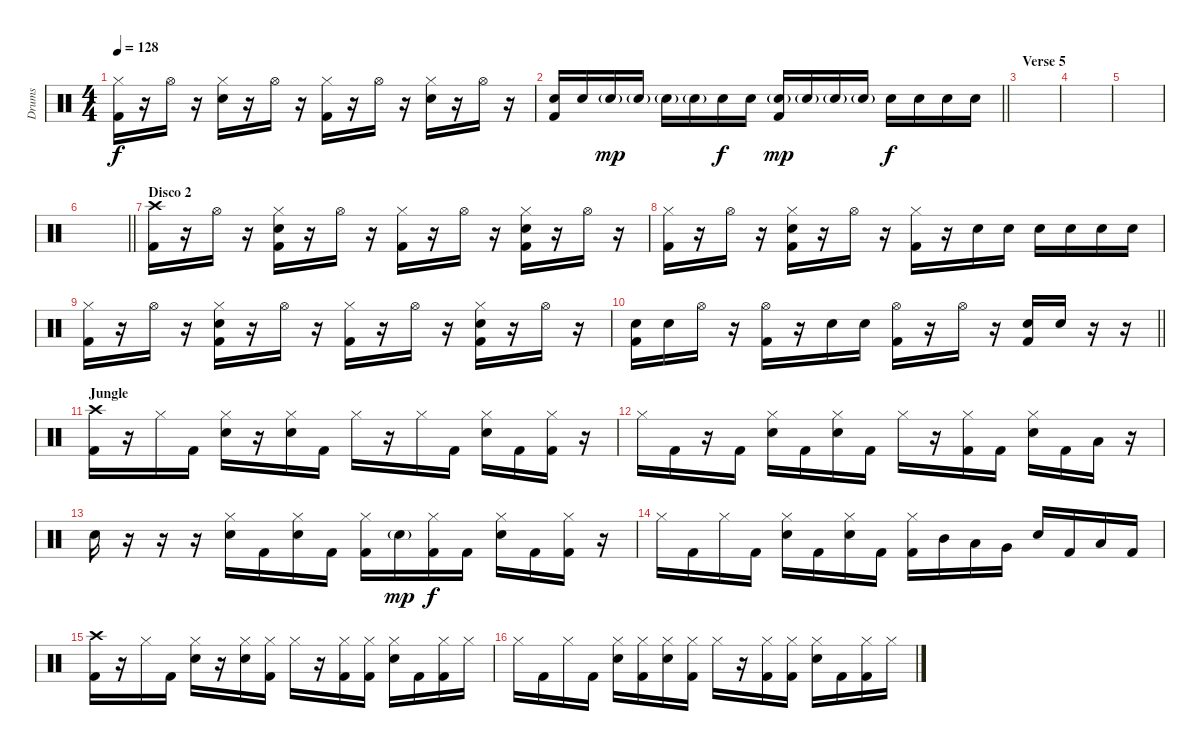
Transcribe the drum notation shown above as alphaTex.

\track ("Drums" "Drums") {instrument percussion}
\staff {score}
\articulation defaults
\ts (4 4)
\tempo 128
\clef neutral
\ks c
("Hi-Hat (closed)" "Kick (hit) 2").16{dy f} r.16 "Hi-Hat (open)".16 r.16 ("Hi-Hat (closed)" "Electric Snare (hit)").16 r.16 "Hi-Hat (open)".16 r.16 ("Hi-Hat (closed)" "Kick (hit) 2").16 r.16 "Hi-Hat (open)".16 r.16 ("Hi-Hat (closed)" "Electric Snare (hit)").16 r.16 "Hi-Hat (open)".16 r.16 |
\barLineRight lightlight
("Electric Snare (hit)" "Kick (hit) 2").16 "Electric Snare (hit)".16 "Electric Snare (hit)"{g}.16{dy mp} "Electric Snare (hit)"{g}.16 "Electric Snare (hit)"{g}.16 "Electric Snare (hit)"{g}.16 "Electric Snare (hit)".16{dy f} "Electric Snare (hit)".16 ("Electric Snare (hit)"{g} "Kick (hit) 2").16{dy mp} "Electric Snare (hit)"{g}.16 "Electric Snare (hit)"{g}.16 "Electric Snare (hit)"{g}.16 "Electric Snare (hit)".16{dy f} "Electric Snare (hit)".16 "Electric Snare (hit)".16 "Electric Snare (hit)".16 |
\section ("" "Verse 5")
|
|
|
\barLineRight lightlight
|
\section ("" "Disco 2")
("Crash high (hit)" "Kick (hit) 2").16 r.16 "Hi-Hat (open)".16 r.16 ("Hi-Hat (closed)" "Electric Snare (hit)" "Kick (hit) 2").16 r.16 "Hi-Hat (open)".16 r.16 ("Hi-Hat (closed)" "Kick (hit) 2").16 r.16 "Hi-Hat (open)".16 r.16 ("Hi-Hat (closed)" "Electric Snare (hit)" "Kick (hit) 2").16 r.16 "Hi-Hat (open)".16 r.16 |
("Hi-Hat (closed)" "Kick (hit) 2").16 r.16 "Hi-Hat (open)".16 r.16 ("Hi-Hat (closed)" "Electric Snare (hit)" "Kick (hit) 2").16 r.16 "Hi-Hat (open)".16 r.16 ("Hi-Hat (closed)" "Kick (hit) 2").16 r.16 "Electric Snare (hit)".16 "Electric Snare (hit)".16 "Electric Snare (hit)".16 "Electric Snare (hit)".16 "Electric Snare (hit)".16 "Electric Snare (hit)".16 |
("Hi-Hat (closed)" "Kick (hit) 2").16 r.16 "Hi-Hat (open)".16 r.16 ("Hi-Hat (closed)" "Electric Snare (hit)" "Kick (hit) 2").16 r.16 "Hi-Hat (open)".16 r.16 ("Hi-Hat (closed)" "Kick (hit) 2").16 r.16 "Hi-Hat (open)".16 r.16 ("Hi-Hat (closed)" "Electric Snare (hit)" "Kick (hit) 2").16 r.16 "Hi-Hat (open)".16 r.16 |
\barLineRight lightlight
("Electric Snare (hit)" "Kick (hit) 2").16 "Electric Snare (hit)".16 "Hi-Hat (open)".16 r.16 ("Hi-Hat (open)" "Kick (hit) 2").16 r.16 "Electric Snare (hit)".16 "Electric Snare (hit)".16 ("Hi-Hat (open)" "Kick (hit) 2").16 r.16 "Hi-Hat (open)".16 r.16 ("Electric Snare (hit)" "Kick (hit) 2").16 "Electric Snare (hit)".16 r.16 r.16 |
\section ("" "Jungle")
("Crash high (hit)" "Kick (hit) 2").16 r.16 "Hi-Hat (closed)".16 "Kick (hit) 2".16 ("Hi-Hat (closed)" "Electric Snare (hit)").16 r.16 ("Hi-Hat (closed)" "Electric Snare (hit)").16 "Kick (hit) 2".16 "Hi-Hat (closed)".16 r.16 "Hi-Hat (closed)".16 "Kick (hit) 2".16 ("Hi-Hat (closed)" "Electric Snare (hit)").16 "Kick (hit) 2".16 ("Hi-Hat (closed)" "Kick (hit) 2").16 r.16 |
"Hi-Hat (closed)".16 "Kick (hit) 2".16 r.16 "Kick (hit) 2".16 ("Hi-Hat (closed)" "Electric Snare (hit)").16 "Kick (hit) 2".16 ("Hi-Hat (closed)" "Electric Snare (hit)").16 "Kick (hit) 2".16 "Hi-Hat (closed)".16 r.16 ("Hi-Hat (closed)" "Kick (hit) 2").16 "Kick (hit) 2".16 ("Hi-Hat (closed)" "Electric Snare (hit)").16 "Kick (hit) 2".16 "Low Floor Tom (hit)".16 r.16 |
"Electric Snare (hit)".16 r.16 r.16 r.16 ("Hi-Hat (closed)" "Electric Snare (hit)").16 "Kick (hit) 2".16 ("Hi-Hat (closed)" "Electric Snare (hit)").16 "Kick (hit) 2".16 ("Hi-Hat (closed)" "Kick (hit) 2").16 "Electric Snare (hit)"{g}.16{dy mp} ("Hi-Hat (closed)" "Kick (hit) 2").16{dy f} "Kick (hit) 2".16 ("Hi-Hat (closed)" "Electric Snare (hit)").16 "Kick (hit) 2".16 ("Hi-Hat (closed)" "Kick (hit) 2").16 r.16 |
"Hi-Hat (closed)".16 "Kick (hit) 2".16 "Hi-Hat (closed)".16 "Kick (hit) 2".16 ("Hi-Hat (closed)" "Electric Snare (hit)").16 "Kick (hit) 2".16 ("Hi-Hat (closed)" "Electric Snare (hit)").16 "Kick (hit) 2".16 ("Hi-Hat (closed)" "Kick (hit) 2").16 "Mid Tom (hit)".16 "Low Tom (hit)".16 "Very Low Tom (hit)".16 "Electric Snare (hit)".16 "Kick (hit) 2".16 "Low Floor Tom (hit)".16 "Kick (hit) 2".16 |
("Crash high (hit)" "Kick (hit) 2").16 r.16 "Hi-Hat (closed)".16 "Kick (hit) 2".16 ("Hi-Hat (closed)" "Electric Snare (hit)").16 r.16 ("Hi-Hat (closed)" "Electric Snare (hit)").16 ("Hi-Hat (closed)" "Kick (hit) 2").16 "Hi-Hat (closed)".16 r.16 ("Hi-Hat (closed)" "Kick (hit) 2").16 ("Hi-Hat (closed)" "Kick (hit) 2").16 ("Hi-Hat (closed)" "Electric Snare (hit)").16 "Kick (hit) 2".16 ("Hi-Hat (closed)" "Kick (hit) 2").16 "Hi-Hat (closed)".16 |
"Hi-Hat (closed)".16 "Kick (hit) 2".16 "Hi-Hat (closed)".16 "Kick (hit) 2".16 ("Hi-Hat (closed)" "Electric Snare (hit)").16 ("Hi-Hat (closed)" "Kick (hit) 2").16 ("Hi-Hat (closed)" "Electric Snare (hit)").16 ("Hi-Hat (closed)" "Kick (hit) 2").16 "Hi-Hat (closed)".16 r.16 ("Hi-Hat (closed)" "Kick (hit) 2").16 ("Hi-Hat (closed)" "Kick (hit) 2").16 ("Hi-Hat (closed)" "Electric Snare (hit)").16 "Kick (hit) 2".16 ("Hi-Hat (closed)" "Kick (hit) 2").16 "Hi-Hat (closed)".16
